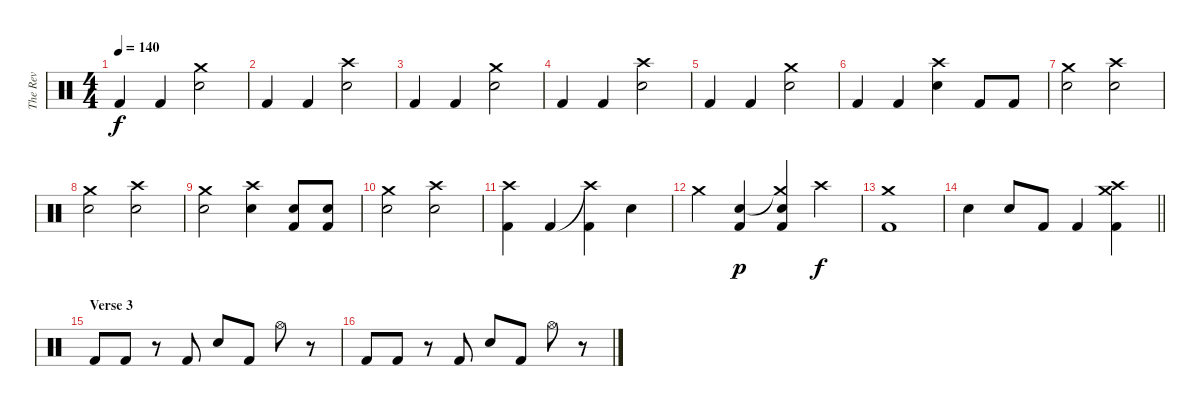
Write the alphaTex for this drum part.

\track ("The Rev" "The Rev") {instrument percussion}
\staff {score}
\articulation defaults
\ts (4 4)
\tempo 140
\clef neutral
\ks c "Kick (hit) 2".4{dy f} "Kick (hit) 2".4
("Crash medium (hit)" "Snare (hit) 2").2 |
"Kick (hit) 2".4 "Kick (hit) 2".4 ("Crash high (hit)" "Snare (hit) 2").2 |
"Kick (hit) 2".4 "Kick (hit) 2".4 ("Crash medium (hit)" "Snare (hit) 2").2 |
"Kick (hit) 2".4 "Kick (hit) 2".4 ("Crash high (hit)" "Snare (hit) 2").2 |
"Kick (hit) 2".4 "Kick (hit) 2".4 ("Crash medium (hit)" "Snare (hit) 2").2 |
"Kick (hit) 2".4 "Kick (hit) 2".4 ("Crash high (hit)" "Snare (hit) 2").4 "Kick (hit) 2".8 "Kick (hit) 2".8 |
("Crash medium (hit)" "Snare (hit) 2").2 ("Crash high (hit)" "Snare (hit) 2").2 |
("Crash medium (hit)" "Snare (hit) 2").2 ("Crash high (hit)" "Snare (hit) 2").2 |
("Crash medium (hit)" "Snare (hit) 2").2 ("Crash high (hit)" "Snare (hit) 2").4 ("Snare (hit) 2" "Kick (hit) 2").8 ("Snare (hit) 2" "Kick (hit) 2").8 |
("Crash medium (hit)" "Snare (hit) 2").2 ("Crash high (hit)" "Snare (hit) 2").2 |
("Crash high (hit)" "Kick (hit) 2").4 "Kick (hit) 2".4 ("Crash high (hit)"{t} "Kick (hit) 2").4 "Snare (hit) 2".4 |
"Crash medium (hit)".4 ("Snare (hit) 2" "Kick (hit) 2").4{dy p} ("Crash medium (hit)"{t} "Snare (hit) 2" "Kick (hit) 2").4 "Crash high (hit)".4{dy f} |
("Crash medium (hit)" "Kick (hit) 2").1 |
\barLineRight lightlight "Snare (hit) 2".4 "Snare (hit) 2".8 "Kick (hit) 2".8 "Kick (hit) 2".4
("Crash medium (hit)" "Crash high (hit)" "Kick (hit) 2").4 |
\section ("" "Verse 3")
"Kick (hit) 2".8 "Kick (hit) 2".8 r.8 "Kick (hit) 2".8 "Snare (hit) 2".8 "Kick (hit) 2".8 "Hi-Hat (open)".8 r.8 |
"Kick (hit) 2".8 "Kick (hit) 2".8 r.8 "Kick (hit) 2".8 "Snare (hit) 2".8 "Kick (hit) 2".8 "Hi-Hat (open)".8 r.8
